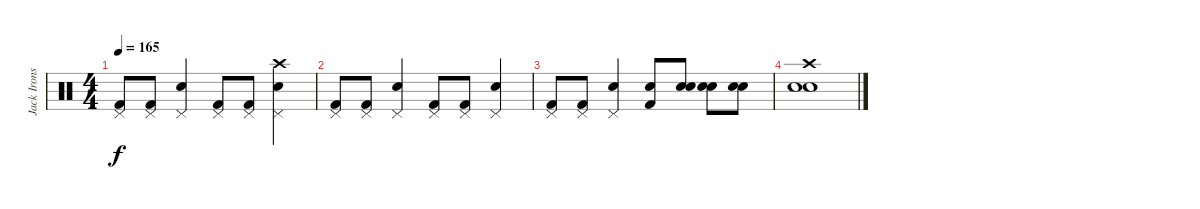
\track ("Jack Irons" "Jack Irons") {instrument percussion}
\staff {score}
\articulation defaults
\ts (4 4)
\tempo 165
\clef neutral
\ks c
("Pedal Hi-Hat (hit)" "Kick (hit) 2").8{dy f} ("Pedal Hi-Hat (hit)" "Kick (hit) 2").8 ("Pedal Hi-Hat (hit)" "Snare (hit) 2").4 ("Pedal Hi-Hat (hit)" "Kick (hit) 2").8 ("Pedal Hi-Hat (hit)" "Kick (hit) 2").8 ("Crash high (hit)" "Pedal Hi-Hat (hit)" "Snare (hit) 2").4 |
("Pedal Hi-Hat (hit)" "Kick (hit) 2").8 ("Pedal Hi-Hat (hit)" "Kick (hit) 2").8 ("Pedal Hi-Hat (hit)" "Snare (hit) 2").4 ("Pedal Hi-Hat (hit)" "Kick (hit) 2").8 ("Pedal Hi-Hat (hit)" "Kick (hit) 2").8 ("Pedal Hi-Hat (hit)" "Snare (hit) 2").4 |
("Pedal Hi-Hat (hit)" "Kick (hit) 2").8 ("Pedal Hi-Hat (hit)" "Kick (hit) 2").8 ("Pedal Hi-Hat (hit)" "Snare (hit) 2").4 ("Snare (hit) 2" "Kick (hit) 2").8 ("Snare (hit) 2" "Snare (hit) 2").8 ("Snare (hit) 2" "Snare (hit) 2").8 ("Snare (hit) 2" "Snare (hit) 2").8 |
("Crash high (hit)" "Snare (hit) 2" "Snare (hit) 2").1
